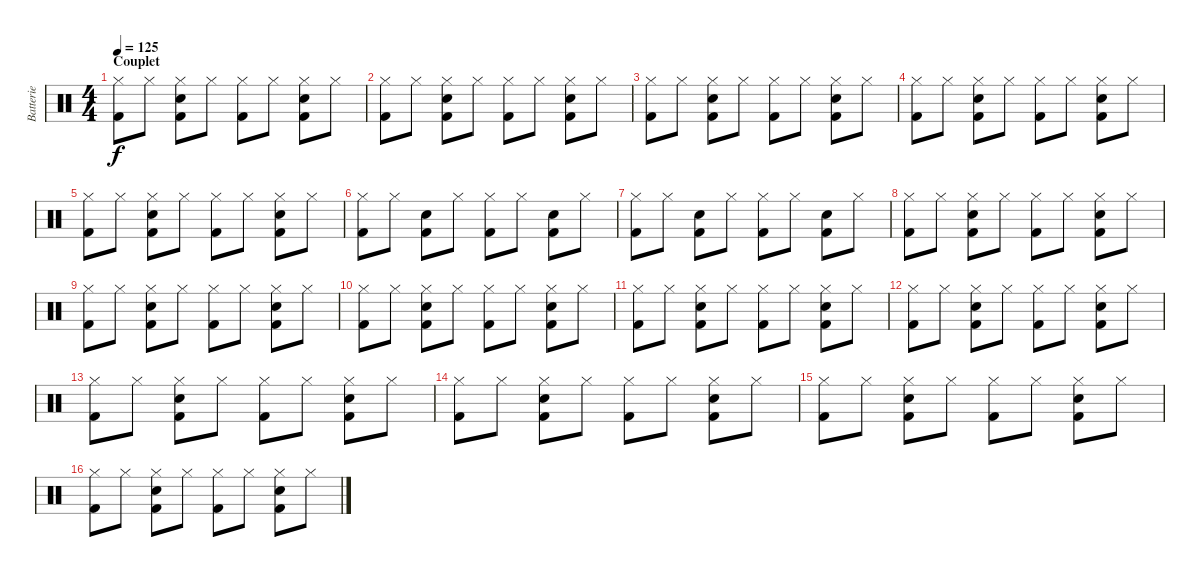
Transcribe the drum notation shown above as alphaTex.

\track ("Batterie" "Batterie") {instrument percussion}
\staff {score}
\articulation defaults
\ts (4 4)
\section ("" "Couplet")
\tempo 125
\clef neutral
\ks c
("Hi-Hat (closed)" "Kick (hit) 2").8{dy f} "Hi-Hat (closed)".8 ("Hi-Hat (closed)" "Snare (hit) 2" "Kick (hit) 2").8 "Hi-Hat (closed)".8 ("Hi-Hat (closed)" "Kick (hit) 2").8 "Hi-Hat (closed)".8 ("Hi-Hat (closed)" "Snare (hit) 2" "Kick (hit) 2").8 "Hi-Hat (closed)".8 |
("Hi-Hat (closed)" "Kick (hit) 2").8 "Hi-Hat (closed)".8 ("Hi-Hat (closed)" "Snare (hit) 2" "Kick (hit) 2").8 "Hi-Hat (closed)".8 ("Hi-Hat (closed)" "Kick (hit) 2").8 "Hi-Hat (closed)".8 ("Hi-Hat (closed)" "Snare (hit) 2" "Kick (hit) 2").8 "Hi-Hat (closed)".8 |
("Hi-Hat (closed)" "Kick (hit) 2").8 "Hi-Hat (closed)".8 ("Hi-Hat (closed)" "Snare (hit) 2" "Kick (hit) 2").8 "Hi-Hat (closed)".8 ("Hi-Hat (closed)" "Kick (hit) 2").8 "Hi-Hat (closed)".8 ("Hi-Hat (closed)" "Snare (hit) 2" "Kick (hit) 2").8 "Hi-Hat (closed)".8 |
("Hi-Hat (closed)" "Kick (hit) 2").8 "Hi-Hat (closed)".8 ("Hi-Hat (closed)" "Snare (hit) 2" "Kick (hit) 2").8 "Hi-Hat (closed)".8 ("Hi-Hat (closed)" "Kick (hit) 2").8 "Hi-Hat (closed)".8 ("Hi-Hat (closed)" "Snare (hit) 2" "Kick (hit) 2").8 "Hi-Hat (closed)".8 |
("Hi-Hat (closed)" "Kick (hit) 2").8 "Hi-Hat (closed)".8 ("Hi-Hat (closed)" "Snare (hit) 2" "Kick (hit) 2").8 "Hi-Hat (closed)".8 ("Hi-Hat (closed)" "Kick (hit) 2").8 "Hi-Hat (closed)".8 ("Hi-Hat (closed)" "Snare (hit) 2" "Kick (hit) 2").8 "Hi-Hat (closed)".8 |
("Hi-Hat (closed)" "Kick (hit) 2").8 "Hi-Hat (closed)".8 ("Snare (hit) 2" "Kick (hit) 2").8 "Hi-Hat (closed)".8 ("Hi-Hat (closed)" "Kick (hit) 2").8 "Hi-Hat (closed)".8 ("Snare (hit) 2" "Kick (hit) 2").8 "Hi-Hat (closed)".8 |
("Hi-Hat (closed)" "Kick (hit) 2").8 "Hi-Hat (closed)".8 ("Snare (hit) 2" "Kick (hit) 2").8 "Hi-Hat (closed)".8 ("Hi-Hat (closed)" "Kick (hit) 2").8 "Hi-Hat (closed)".8 ("Snare (hit) 2" "Kick (hit) 2").8 "Hi-Hat (closed)".8 |
("Hi-Hat (closed)" "Kick (hit) 2").8 "Hi-Hat (closed)".8 ("Hi-Hat (closed)" "Snare (hit) 2" "Kick (hit) 2").8 "Hi-Hat (closed)".8 ("Hi-Hat (closed)" "Kick (hit) 2").8 "Hi-Hat (closed)".8 ("Hi-Hat (closed)" "Snare (hit) 2" "Kick (hit) 2").8 "Hi-Hat (closed)".8 |
("Hi-Hat (closed)" "Kick (hit) 2").8 "Hi-Hat (closed)".8 ("Hi-Hat (closed)" "Snare (hit) 2" "Kick (hit) 2").8 "Hi-Hat (closed)".8 ("Hi-Hat (closed)" "Kick (hit) 2").8 "Hi-Hat (closed)".8 ("Hi-Hat (closed)" "Snare (hit) 2" "Kick (hit) 2").8 "Hi-Hat (closed)".8 |
("Hi-Hat (closed)" "Kick (hit) 2").8 "Hi-Hat (closed)".8 ("Hi-Hat (closed)" "Snare (hit) 2" "Kick (hit) 2").8 "Hi-Hat (closed)".8 ("Hi-Hat (closed)" "Kick (hit) 2").8 "Hi-Hat (closed)".8 ("Hi-Hat (closed)" "Snare (hit) 2" "Kick (hit) 2").8 "Hi-Hat (closed)".8 |
("Hi-Hat (closed)" "Kick (hit) 2").8 "Hi-Hat (closed)".8 ("Hi-Hat (closed)" "Snare (hit) 2" "Kick (hit) 2").8 "Hi-Hat (closed)".8 ("Hi-Hat (closed)" "Kick (hit) 2").8 "Hi-Hat (closed)".8 ("Hi-Hat (closed)" "Snare (hit) 2" "Kick (hit) 2").8 "Hi-Hat (closed)".8 |
("Hi-Hat (closed)" "Kick (hit) 2").8 "Hi-Hat (closed)".8 ("Hi-Hat (closed)" "Snare (hit) 2" "Kick (hit) 2").8 "Hi-Hat (closed)".8 ("Hi-Hat (closed)" "Kick (hit) 2").8 "Hi-Hat (closed)".8 ("Hi-Hat (closed)" "Snare (hit) 2" "Kick (hit) 2").8 "Hi-Hat (closed)".8 |
("Hi-Hat (closed)" "Kick (hit) 2").8 "Hi-Hat (closed)".8 ("Hi-Hat (closed)" "Snare (hit) 2" "Kick (hit) 2").8 "Hi-Hat (closed)".8 ("Hi-Hat (closed)" "Kick (hit) 2").8 "Hi-Hat (closed)".8 ("Hi-Hat (closed)" "Snare (hit) 2" "Kick (hit) 2").8 "Hi-Hat (closed)".8 |
("Hi-Hat (closed)" "Kick (hit) 2").8 "Hi-Hat (closed)".8 ("Hi-Hat (closed)" "Snare (hit) 2" "Kick (hit) 2").8 "Hi-Hat (closed)".8 ("Hi-Hat (closed)" "Kick (hit) 2").8 "Hi-Hat (closed)".8 ("Hi-Hat (closed)" "Snare (hit) 2" "Kick (hit) 2").8 "Hi-Hat (closed)".8 |
("Hi-Hat (closed)" "Kick (hit) 2").8 "Hi-Hat (closed)".8 ("Hi-Hat (closed)" "Snare (hit) 2" "Kick (hit) 2").8 "Hi-Hat (closed)".8 ("Hi-Hat (closed)" "Kick (hit) 2").8 "Hi-Hat (closed)".8 ("Hi-Hat (closed)" "Snare (hit) 2" "Kick (hit) 2").8 "Hi-Hat (closed)".8 |
("Hi-Hat (closed)" "Kick (hit) 2").8 "Hi-Hat (closed)".8 ("Hi-Hat (closed)" "Snare (hit) 2" "Kick (hit) 2").8 "Hi-Hat (closed)".8 ("Hi-Hat (closed)" "Kick (hit) 2").8 "Hi-Hat (closed)".8 ("Hi-Hat (closed)" "Snare (hit) 2" "Kick (hit) 2").8 "Hi-Hat (closed)".8
